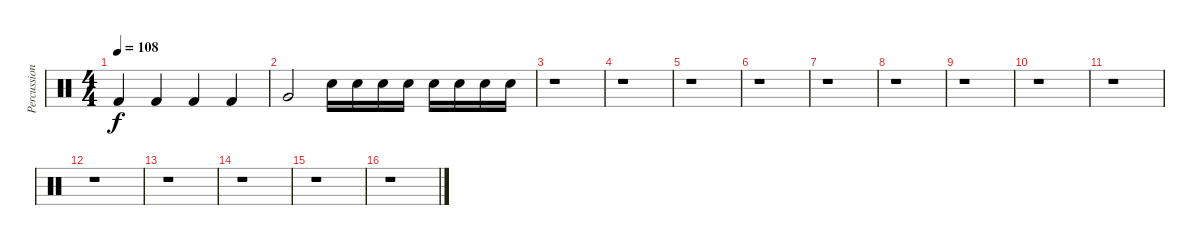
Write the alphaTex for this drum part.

\track ("Percussion" "Percussion") {instrument percussion}
\staff {score}
\articulation defaults
\ts (4 4)
\tempo 108
\clef neutral
\ks c "Kick (hit) 2".4{dy f} "Kick (hit) 2".4 "Kick (hit) 2".4 "Kick (hit) 2".4
|
"Very Low Tom (hit)".2 "Snare (hit) 2".16 "Snare (hit) 2".16 "Snare (hit) 2".16 "Snare (hit) 2".16 "Snare (hit) 2".16 "Snare (hit) 2".16 "Snare (hit) 2".16 "Snare (hit) 2".16 |
r.1 |
r.1 |
r.1 |
r.1 |
r.1 |
r.1 |
r.1 |
r.1 |
r.1 |
r.1 |
r.1 |
r.1 |
r.1 |
r.1
